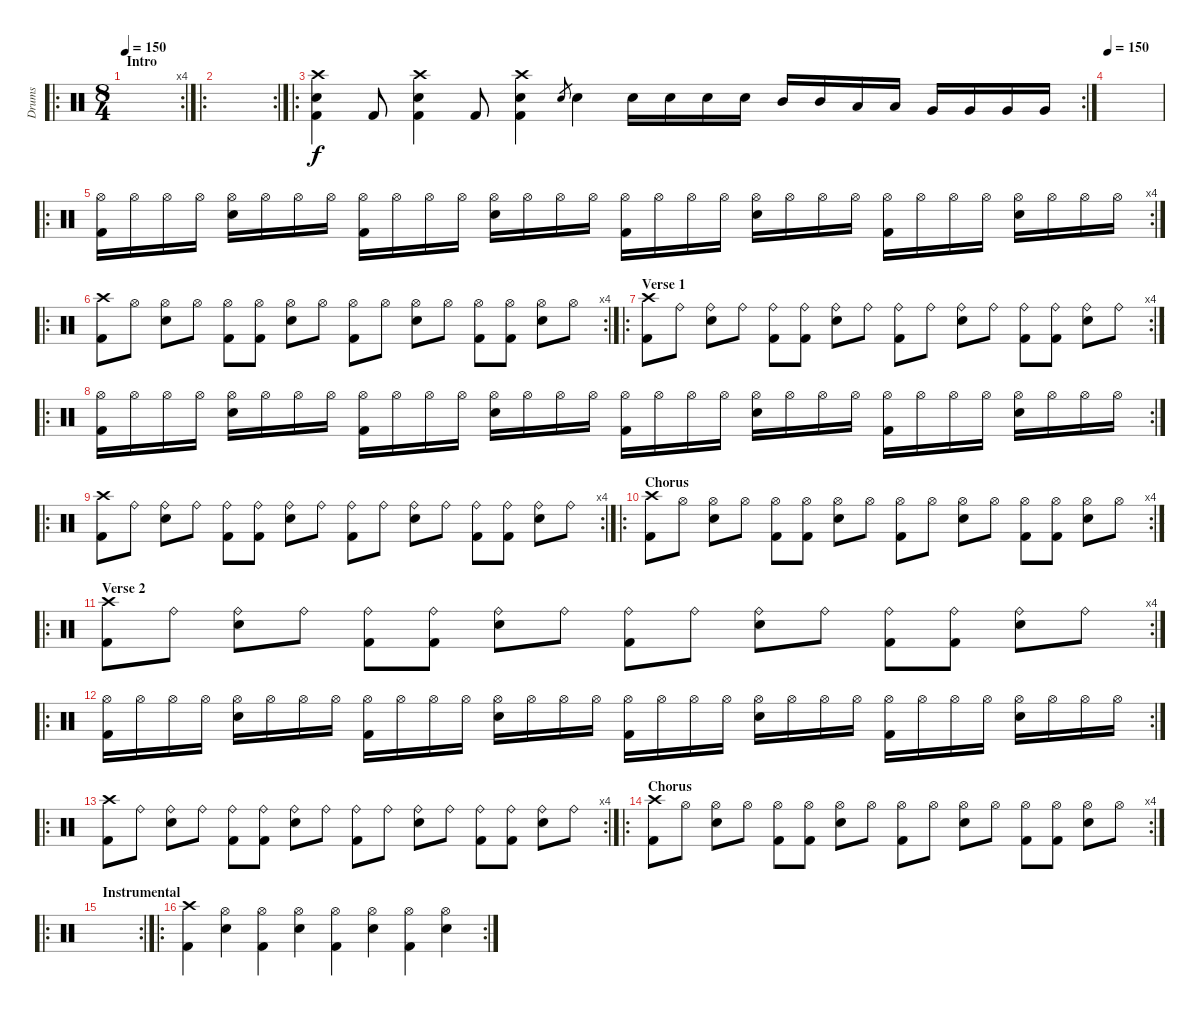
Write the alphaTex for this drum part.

\track ("Drums" "Drums") {instrument percussion}
\staff {score}
\articulation defaults
\ro
\rc 4
\ts (8 4)
\section ("" "Intro")
\tempo 150
\tempo 100
\tempo 150
\clef neutral
\ks c
|
\ro
\rc 2
|
\ro
\rc 2
("Crash high (hit)" "Electric Snare (hit)" "Kick (hit) 2").4 "Kick (hit) 2".8 ("Crash high (hit)" "Electric Snare (hit)" "Kick (hit) 2").4 "Kick (hit) 2".8 ("Crash high (hit)" "Electric Snare (hit)" "Kick (hit) 2").4 "Electric Snare (hit)".8{gr} "Electric Snare (hit)".4 "Electric Snare (hit)".16 "Electric Snare (hit)".16 "Electric Snare (hit)".16 "Electric Snare (hit)".16 "Mid Tom (hit)".16 "Mid Tom (hit)".16 "Low Tom (hit)".16 "Low Tom (hit)".16 "Very Low Tom (hit)".16 "Very Low Tom (hit)".16 "Very Low Tom (hit)".16 "Very Low Tom (hit)".16 |
\tempo 150
|
\ro
\rc 4
("Hi-Hat (open)" "Kick (hit) 2").16 "Hi-Hat (open)".16 "Hi-Hat (open)".16 "Hi-Hat (open)".16 ("Hi-Hat (open)" "Electric Snare (hit)").16 "Hi-Hat (open)".16 "Hi-Hat (open)".16 "Hi-Hat (open)".16 ("Hi-Hat (open)" "Kick (hit) 2").16 "Hi-Hat (open)".16 "Hi-Hat (open)".16 "Hi-Hat (open)".16 ("Hi-Hat (open)" "Electric Snare (hit)").16 "Hi-Hat (open)".16 "Hi-Hat (open)".16 "Hi-Hat (open)".16 ("Hi-Hat (open)" "Kick (hit) 2").16 "Hi-Hat (open)".16 "Hi-Hat (open)".16 "Hi-Hat (open)".16 ("Hi-Hat (open)" "Electric Snare (hit)").16 "Hi-Hat (open)".16 "Hi-Hat (open)".16 "Hi-Hat (open)".16 ("Hi-Hat (open)" "Kick (hit) 2").16 "Hi-Hat (open)".16 "Hi-Hat (open)".16 "Hi-Hat (open)".16 ("Hi-Hat (open)" "Electric Snare (hit)").16 "Hi-Hat (open)".16 "Hi-Hat (open)".16 "Hi-Hat (open)".16 |
\ro
\rc 4
("Crash high (hit)" "Kick (hit) 2").8 "Hi-Hat (open)".8 ("Hi-Hat (open)" "Electric Snare (hit)").8 "Hi-Hat (open)".8 ("Hi-Hat (open)" "Kick (hit) 2").8 ("Hi-Hat (open)" "Kick (hit) 2").8 ("Hi-Hat (open)" "Electric Snare (hit)").8 "Hi-Hat (open)".8 ("Hi-Hat (open)" "Kick (hit) 2").8 "Hi-Hat (open)".8 ("Hi-Hat (open)" "Electric Snare (hit)").8 "Hi-Hat (open)".8 ("Hi-Hat (open)" "Kick (hit) 2").8 ("Hi-Hat (open)" "Kick (hit) 2").8 ("Hi-Hat (open)" "Electric Snare (hit)").8 "Hi-Hat (open)".8 |
\ro
\rc 4
\section ("" "Verse 1")
("Crash high (hit)" "Kick (hit) 2").8 "Ride (bell)".8 ("Ride (bell)" "Electric Snare (hit)").8 "Ride (bell)".8 ("Ride (bell)" "Kick (hit) 2").8 ("Ride (bell)" "Kick (hit) 2").8 ("Ride (bell)" "Electric Snare (hit)").8 "Ride (bell)".8 ("Ride (bell)" "Kick (hit) 2").8 "Ride (bell)".8 ("Ride (bell)" "Electric Snare (hit)").8 "Ride (bell)".8 ("Ride (bell)" "Kick (hit) 2").8 ("Ride (bell)" "Kick (hit) 2").8 ("Ride (bell)" "Electric Snare (hit)").8 "Ride (bell)".8 |
\ro
\rc 2
("Hi-Hat (open)" "Kick (hit) 2").16 "Hi-Hat (open)".16 "Hi-Hat (open)".16 "Hi-Hat (open)".16 ("Hi-Hat (open)" "Electric Snare (hit)").16 "Hi-Hat (open)".16 "Hi-Hat (open)".16 "Hi-Hat (open)".16 ("Hi-Hat (open)" "Kick (hit) 2").16 "Hi-Hat (open)".16 "Hi-Hat (open)".16 "Hi-Hat (open)".16 ("Hi-Hat (open)" "Electric Snare (hit)").16 "Hi-Hat (open)".16 "Hi-Hat (open)".16 "Hi-Hat (open)".16 ("Hi-Hat (open)" "Kick (hit) 2").16 "Hi-Hat (open)".16 "Hi-Hat (open)".16 "Hi-Hat (open)".16 ("Hi-Hat (open)" "Electric Snare (hit)").16 "Hi-Hat (open)".16 "Hi-Hat (open)".16 "Hi-Hat (open)".16 ("Hi-Hat (open)" "Kick (hit) 2").16 "Hi-Hat (open)".16 "Hi-Hat (open)".16 "Hi-Hat (open)".16 ("Hi-Hat (open)" "Electric Snare (hit)").16 "Hi-Hat (open)".16 "Hi-Hat (open)".16 "Hi-Hat (open)".16 |
\ro
\rc 4
("Crash high (hit)" "Kick (hit) 2").8 "Ride (bell)".8 ("Ride (bell)" "Electric Snare (hit)").8 "Ride (bell)".8 ("Ride (bell)" "Kick (hit) 2").8 ("Ride (bell)" "Kick (hit) 2").8 ("Ride (bell)" "Electric Snare (hit)").8 "Ride (bell)".8 ("Ride (bell)" "Kick (hit) 2").8 "Ride (bell)".8 ("Ride (bell)" "Electric Snare (hit)").8 "Ride (bell)".8 ("Ride (bell)" "Kick (hit) 2").8 ("Ride (bell)" "Kick (hit) 2").8 ("Ride (bell)" "Electric Snare (hit)").8 "Ride (bell)".8 |
\ro
\rc 4
\section ("" "Chorus")
("Crash high (hit)" "Kick (hit) 2").8 "Hi-Hat (open)".8 ("Hi-Hat (open)" "Electric Snare (hit)").8 "Hi-Hat (open)".8 ("Hi-Hat (open)" "Kick (hit) 2").8 ("Hi-Hat (open)" "Kick (hit) 2").8 ("Hi-Hat (open)" "Electric Snare (hit)").8 "Hi-Hat (open)".8 ("Hi-Hat (open)" "Kick (hit) 2").8 "Hi-Hat (open)".8 ("Hi-Hat (open)" "Electric Snare (hit)").8 "Hi-Hat (open)".8 ("Hi-Hat (open)" "Kick (hit) 2").8 ("Hi-Hat (open)" "Kick (hit) 2").8 ("Hi-Hat (open)" "Electric Snare (hit)").8 "Hi-Hat (open)".8 |
\ro
\rc 4
\section ("" "Verse 2")
("Crash high (hit)" "Kick (hit) 2").8 "Ride (bell)".8 ("Ride (bell)" "Electric Snare (hit)").8 "Ride (bell)".8 ("Ride (bell)" "Kick (hit) 2").8 ("Ride (bell)" "Kick (hit) 2").8 ("Ride (bell)" "Electric Snare (hit)").8 "Ride (bell)".8 ("Ride (bell)" "Kick (hit) 2").8 "Ride (bell)".8 ("Ride (bell)" "Electric Snare (hit)").8 "Ride (bell)".8 ("Ride (bell)" "Kick (hit) 2").8 ("Ride (bell)" "Kick (hit) 2").8 ("Ride (bell)" "Electric Snare (hit)").8 "Ride (bell)".8 |
\ro
\rc 2
("Hi-Hat (open)" "Kick (hit) 2").16 "Hi-Hat (open)".16 "Hi-Hat (open)".16 "Hi-Hat (open)".16 ("Hi-Hat (open)" "Electric Snare (hit)").16 "Hi-Hat (open)".16 "Hi-Hat (open)".16 "Hi-Hat (open)".16 ("Hi-Hat (open)" "Kick (hit) 2").16 "Hi-Hat (open)".16 "Hi-Hat (open)".16 "Hi-Hat (open)".16 ("Hi-Hat (open)" "Electric Snare (hit)").16 "Hi-Hat (open)".16 "Hi-Hat (open)".16 "Hi-Hat (open)".16 ("Hi-Hat (open)" "Kick (hit) 2").16 "Hi-Hat (open)".16 "Hi-Hat (open)".16 "Hi-Hat (open)".16 ("Hi-Hat (open)" "Electric Snare (hit)").16 "Hi-Hat (open)".16 "Hi-Hat (open)".16 "Hi-Hat (open)".16 ("Hi-Hat (open)" "Kick (hit) 2").16 "Hi-Hat (open)".16 "Hi-Hat (open)".16 "Hi-Hat (open)".16 ("Hi-Hat (open)" "Electric Snare (hit)").16 "Hi-Hat (open)".16 "Hi-Hat (open)".16 "Hi-Hat (open)".16 |
\ro
\rc 4
("Crash high (hit)" "Kick (hit) 2").8 "Ride (bell)".8 ("Ride (bell)" "Electric Snare (hit)").8 "Ride (bell)".8 ("Ride (bell)" "Kick (hit) 2").8 ("Ride (bell)" "Kick (hit) 2").8 ("Ride (bell)" "Electric Snare (hit)").8 "Ride (bell)".8 ("Ride (bell)" "Kick (hit) 2").8 "Ride (bell)".8 ("Ride (bell)" "Electric Snare (hit)").8 "Ride (bell)".8 ("Ride (bell)" "Kick (hit) 2").8 ("Ride (bell)" "Kick (hit) 2").8 ("Ride (bell)" "Electric Snare (hit)").8 "Ride (bell)".8 |
\ro
\rc 4
\section ("" "Chorus")
("Crash high (hit)" "Kick (hit) 2").8 "Hi-Hat (open)".8 ("Hi-Hat (open)" "Electric Snare (hit)").8 "Hi-Hat (open)".8 ("Hi-Hat (open)" "Kick (hit) 2").8 ("Hi-Hat (open)" "Kick (hit) 2").8 ("Hi-Hat (open)" "Electric Snare (hit)").8 "Hi-Hat (open)".8 ("Hi-Hat (open)" "Kick (hit) 2").8 "Hi-Hat (open)".8 ("Hi-Hat (open)" "Electric Snare (hit)").8 "Hi-Hat (open)".8 ("Hi-Hat (open)" "Kick (hit) 2").8 ("Hi-Hat (open)" "Kick (hit) 2").8 ("Hi-Hat (open)" "Electric Snare (hit)").8 "Hi-Hat (open)".8 |
\ro
\rc 2
\section ("" "Instrumental")
|
\ro
\rc 2
("Crash high (hit)" "Kick (hit) 2").4 ("Hi-Hat (open)" "Electric Snare (hit)").4 ("Hi-Hat (open)" "Kick (hit) 2").4 ("Hi-Hat (open)" "Electric Snare (hit)").4 ("Hi-Hat (open)" "Kick (hit) 2").4 ("Hi-Hat (open)" "Electric Snare (hit)").4 ("Hi-Hat (open)" "Kick (hit) 2").4 ("Hi-Hat (open)" "Electric Snare (hit)").4
